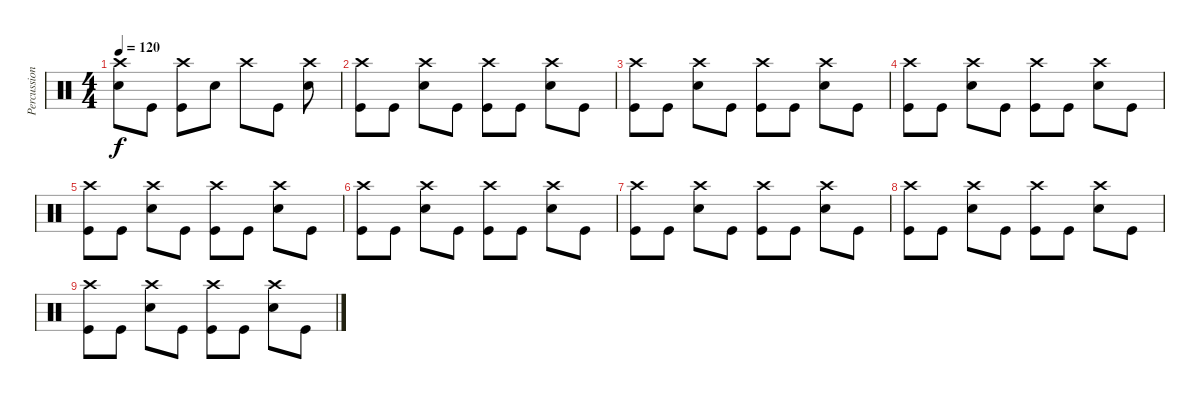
\track ("Percussion" "Percussion") {instrument percussion}
\staff {score}
\articulation defaults
\ts (4 4)
\tempo 120
\clef neutral
\ks c
("Crash high (hit)" "Snare (hit) 2").8{dy f} "Kick (hit)".8 ("Crash high (hit)" "Kick (hit)").8 "Snare (hit) 2".8 "Crash high (hit)".8 "Kick (hit)".8 ("Crash high (hit)" "Snare (hit) 2").8 |
("Crash high (hit)" "Kick (hit)").8 "Kick (hit)".8 ("Crash high (hit)" "Snare (hit) 2").8 "Kick (hit)".8 ("Crash high (hit)" "Kick (hit)").8 "Kick (hit)".8 ("Crash high (hit)" "Snare (hit) 2").8 "Kick (hit)".8 |
("Crash high (hit)" "Kick (hit)").8 "Kick (hit)".8 ("Crash high (hit)" "Snare (hit) 2").8 "Kick (hit)".8 ("Crash high (hit)" "Kick (hit)").8 "Kick (hit)".8 ("Crash high (hit)" "Snare (hit) 2").8 "Kick (hit)".8 |
("Crash high (hit)" "Kick (hit)").8 "Kick (hit)".8 ("Crash high (hit)" "Snare (hit) 2").8 "Kick (hit)".8 ("Crash high (hit)" "Kick (hit)").8 "Kick (hit)".8 ("Crash high (hit)" "Snare (hit) 2").8 "Kick (hit)".8 |
("Crash high (hit)" "Kick (hit)").8 "Kick (hit)".8 ("Crash high (hit)" "Snare (hit) 2").8 "Kick (hit)".8 ("Crash high (hit)" "Kick (hit)").8 "Kick (hit)".8 ("Crash high (hit)" "Snare (hit) 2").8 "Kick (hit)".8 |
("Crash high (hit)" "Kick (hit)").8 "Kick (hit)".8 ("Crash high (hit)" "Snare (hit) 2").8 "Kick (hit)".8 ("Crash high (hit)" "Kick (hit)").8 "Kick (hit)".8 ("Crash high (hit)" "Snare (hit) 2").8 "Kick (hit)".8 |
("Crash high (hit)" "Kick (hit)").8 "Kick (hit)".8 ("Crash high (hit)" "Snare (hit) 2").8 "Kick (hit)".8 ("Crash high (hit)" "Kick (hit)").8 "Kick (hit)".8 ("Crash high (hit)" "Snare (hit) 2").8 "Kick (hit)".8 |
("Crash high (hit)" "Kick (hit)").8 "Kick (hit)".8 ("Crash high (hit)" "Snare (hit) 2").8 "Kick (hit)".8 ("Crash high (hit)" "Kick (hit)").8 "Kick (hit)".8 ("Crash high (hit)" "Snare (hit) 2").8 "Kick (hit)".8 |
("Crash high (hit)" "Kick (hit)").8 "Kick (hit)".8 ("Crash high (hit)" "Snare (hit) 2").8 "Kick (hit)".8 ("Crash high (hit)" "Kick (hit)").8 "Kick (hit)".8 ("Crash high (hit)" "Snare (hit) 2").8 "Kick (hit)".8
